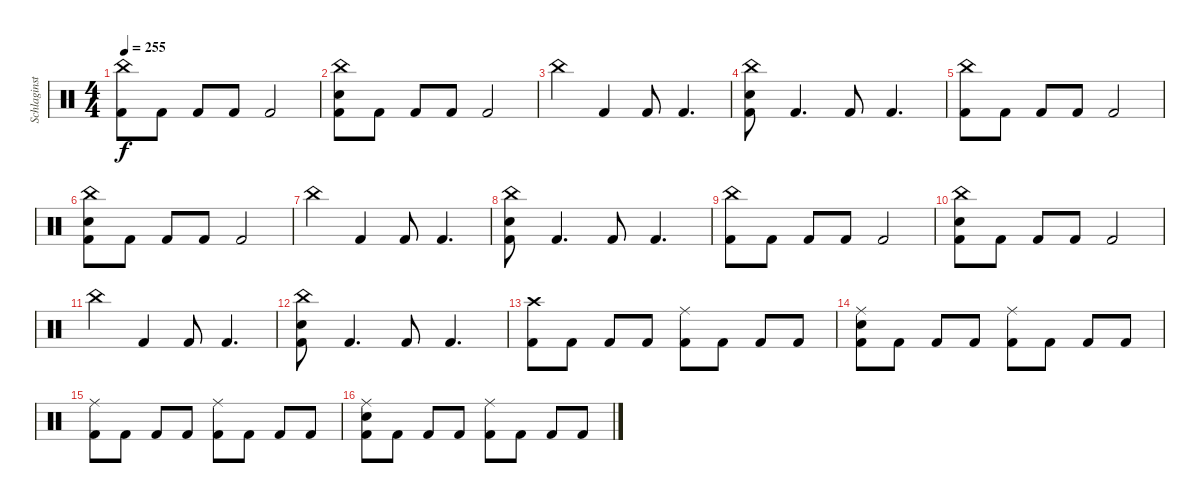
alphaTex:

\track ("Schlaginstrumente - Auswahl" "Schlaginst") {instrument percussion}
\staff {score}
\articulation defaults
\ts (4 4)
\tempo 255
\clef neutral
\ks c
("China (hit)" "Kick (hit) 2").8{dy f} "Kick (hit) 2".8 "Kick (hit) 2".8 "Kick (hit) 2".8 "Kick (hit) 2".2 |
("China (hit)" "Electric Snare (hit)" "Kick (hit) 2").8 "Kick (hit) 2".8 "Kick (hit) 2".8 "Kick (hit) 2".8 "Kick (hit) 2".2 |
"China (hit)".4 "Kick (hit) 2".4 "Kick (hit) 2".8 "Kick (hit) 2".4{d} |
("China (hit)" "Electric Snare (hit)" "Kick (hit) 2").8 "Kick (hit) 2".4{d} "Kick (hit) 2".8 "Kick (hit) 2".4{d} |
("China (hit)" "Kick (hit) 2").8 "Kick (hit) 2".8 "Kick (hit) 2".8 "Kick (hit) 2".8 "Kick (hit) 2".2 |
("China (hit)" "Electric Snare (hit)" "Kick (hit) 2").8 "Kick (hit) 2".8 "Kick (hit) 2".8 "Kick (hit) 2".8 "Kick (hit) 2".2 |
"China (hit)".4 "Kick (hit) 2".4 "Kick (hit) 2".8 "Kick (hit) 2".4{d} |
("China (hit)" "Electric Snare (hit)" "Kick (hit) 2").8 "Kick (hit) 2".4{d} "Kick (hit) 2".8 "Kick (hit) 2".4{d} |
("China (hit)" "Kick (hit) 2").8 "Kick (hit) 2".8 "Kick (hit) 2".8 "Kick (hit) 2".8 "Kick (hit) 2".2 |
("China (hit)" "Electric Snare (hit)" "Kick (hit) 2").8 "Kick (hit) 2".8 "Kick (hit) 2".8 "Kick (hit) 2".8 "Kick (hit) 2".2 |
"China (hit)".4 "Kick (hit) 2".4 "Kick (hit) 2".8 "Kick (hit) 2".4{d} |
("China (hit)" "Electric Snare (hit)" "Kick (hit) 2").8 "Kick (hit) 2".4{d} "Kick (hit) 2".8 "Kick (hit) 2".4{d} |
("Crash high (hit)" "Kick (hit) 2").8 "Kick (hit) 2".8 "Kick (hit) 2".8 "Kick (hit) 2".8 ("Ride (middle)" "Kick (hit) 2").8 "Kick (hit) 2".8 "Kick (hit) 2".8 "Kick (hit) 2".8 |
("Ride (middle)" "Electric Snare (hit)" "Kick (hit) 2").8 "Kick (hit) 2".8 "Kick (hit) 2".8 "Kick (hit) 2".8 ("Ride (middle)" "Kick (hit) 2").8 "Kick (hit) 2".8 "Kick (hit) 2".8 "Kick (hit) 2".8 |
("Ride (middle)" "Kick (hit) 2").8 "Kick (hit) 2".8 "Kick (hit) 2".8 "Kick (hit) 2".8 ("Ride (middle)" "Kick (hit) 2").8 "Kick (hit) 2".8 "Kick (hit) 2".8 "Kick (hit) 2".8 |
("Ride (middle)" "Electric Snare (hit)" "Kick (hit) 2").8 "Kick (hit) 2".8 "Kick (hit) 2".8 "Kick (hit) 2".8 ("Ride (middle)" "Kick (hit) 2").8 "Kick (hit) 2".8 "Kick (hit) 2".8 "Kick (hit) 2".8
